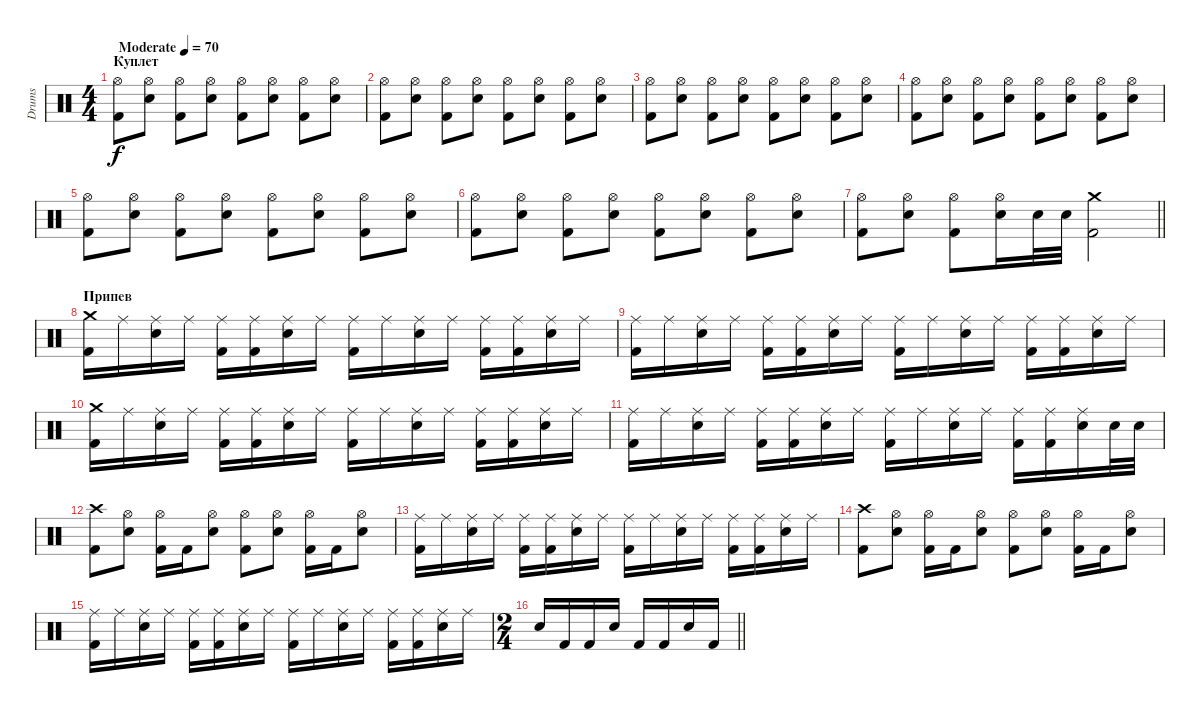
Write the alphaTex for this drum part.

\track ("Drums" "Drums") {instrument percussion}
\staff {score}
\articulation defaults
\ts (4 4)
\section ("" "Куплет")
\tempo (70 "Moderate")
\clef neutral
\ks c
("Hi-Hat (open)" "Kick (hit) 2").8{dy f} ("Hi-Hat (open)" "Snare (hit) 2").8 ("Hi-Hat (open)" "Kick (hit) 2").8 ("Hi-Hat (open)" "Snare (hit) 2").8 ("Hi-Hat (open)" "Kick (hit) 2").8 ("Hi-Hat (open)" "Snare (hit) 2").8 ("Hi-Hat (open)" "Kick (hit) 2").8 ("Hi-Hat (open)" "Snare (hit) 2").8 |
("Hi-Hat (open)" "Kick (hit) 2").8 ("Hi-Hat (open)" "Snare (hit) 2").8 ("Hi-Hat (open)" "Kick (hit) 2").8 ("Hi-Hat (open)" "Snare (hit) 2").8 ("Hi-Hat (open)" "Kick (hit) 2").8 ("Hi-Hat (open)" "Snare (hit) 2").8 ("Hi-Hat (open)" "Kick (hit) 2").8 ("Hi-Hat (open)" "Snare (hit) 2").8 |
("Hi-Hat (open)" "Kick (hit) 2").8 ("Hi-Hat (open)" "Snare (hit) 2").8 ("Hi-Hat (open)" "Kick (hit) 2").8 ("Hi-Hat (open)" "Snare (hit) 2").8 ("Hi-Hat (open)" "Kick (hit) 2").8 ("Hi-Hat (open)" "Snare (hit) 2").8 ("Hi-Hat (open)" "Kick (hit) 2").8 ("Hi-Hat (open)" "Snare (hit) 2").8 |
("Hi-Hat (open)" "Kick (hit) 2").8 ("Hi-Hat (open)" "Snare (hit) 2").8 ("Hi-Hat (open)" "Kick (hit) 2").8 ("Hi-Hat (open)" "Snare (hit) 2").8 ("Hi-Hat (open)" "Kick (hit) 2").8 ("Hi-Hat (open)" "Snare (hit) 2").8 ("Hi-Hat (open)" "Kick (hit) 2").8 ("Hi-Hat (open)" "Snare (hit) 2").8 |
("Hi-Hat (open)" "Kick (hit) 2").8 ("Hi-Hat (open)" "Snare (hit) 2").8 ("Hi-Hat (open)" "Kick (hit) 2").8 ("Hi-Hat (open)" "Snare (hit) 2").8 ("Hi-Hat (open)" "Kick (hit) 2").8 ("Hi-Hat (open)" "Snare (hit) 2").8 ("Hi-Hat (open)" "Kick (hit) 2").8 ("Hi-Hat (open)" "Snare (hit) 2").8 |
("Hi-Hat (open)" "Kick (hit) 2").8 ("Hi-Hat (open)" "Snare (hit) 2").8 ("Hi-Hat (open)" "Kick (hit) 2").8 ("Hi-Hat (open)" "Snare (hit) 2").8 ("Hi-Hat (open)" "Kick (hit) 2").8 ("Hi-Hat (open)" "Snare (hit) 2").8 ("Hi-Hat (open)" "Kick (hit) 2").8 ("Hi-Hat (open)" "Snare (hit) 2").8 |
\barLineRight lightlight
("Hi-Hat (open)" "Kick (hit) 2").8 ("Hi-Hat (open)" "Snare (hit) 2").8 ("Hi-Hat (open)" "Kick (hit) 2").8 ("Hi-Hat (open)" "Snare (hit) 2").16 "Snare (hit) 2".32 "Snare (hit) 2".32 ("Crash medium (hit)" "Kick (hit) 2").2 |
\section ("" "Припев")
("Crash medium (hit)" "Kick (hit) 2").16 "Ride (middle)".16 ("Ride (middle)" "Snare (hit) 2").16 "Ride (middle)".16 ("Ride (middle)" "Kick (hit) 2").16 ("Ride (middle)" "Kick (hit) 2").16 ("Ride (middle)" "Snare (hit) 2").16 "Ride (middle)".16 ("Ride (middle)" "Kick (hit) 2").16 "Ride (middle)".16 ("Ride (middle)" "Snare (hit) 2").16 "Ride (middle)".16 ("Ride (middle)" "Kick (hit) 2").16 ("Ride (middle)" "Kick (hit) 2").16 ("Ride (middle)" "Snare (hit) 2").16 "Ride (middle)".16 |
("Ride (middle)" "Kick (hit) 2").16 "Ride (middle)".16 ("Ride (middle)" "Snare (hit) 2").16 "Ride (middle)".16 ("Ride (middle)" "Kick (hit) 2").16 ("Ride (middle)" "Kick (hit) 2").16 ("Ride (middle)" "Snare (hit) 2").16 "Ride (middle)".16 ("Ride (middle)" "Kick (hit) 2").16 "Ride (middle)".16 ("Ride (middle)" "Snare (hit) 2").16 "Ride (middle)".16 ("Ride (middle)" "Kick (hit) 2").16 ("Ride (middle)" "Kick (hit) 2").16 ("Ride (middle)" "Snare (hit) 2").16 "Ride (middle)".16 |
("Crash medium (hit)" "Kick (hit) 2").16 "Ride (middle)".16 ("Ride (middle)" "Snare (hit) 2").16 "Ride (middle)".16 ("Ride (middle)" "Kick (hit) 2").16 ("Ride (middle)" "Kick (hit) 2").16 ("Ride (middle)" "Snare (hit) 2").16 "Ride (middle)".16 ("Ride (middle)" "Kick (hit) 2").16 "Ride (middle)".16 ("Ride (middle)" "Snare (hit) 2").16 "Ride (middle)".16 ("Ride (middle)" "Kick (hit) 2").16 ("Ride (middle)" "Kick (hit) 2").16 ("Ride (middle)" "Snare (hit) 2").16 "Ride (middle)".16 |
("Ride (middle)" "Kick (hit) 2").16 "Ride (middle)".16 ("Ride (middle)" "Snare (hit) 2").16 "Ride (middle)".16 ("Ride (middle)" "Kick (hit) 2").16 ("Ride (middle)" "Kick (hit) 2").16 ("Ride (middle)" "Snare (hit) 2").16 "Ride (middle)".16 ("Ride (middle)" "Kick (hit) 2").16 "Ride (middle)".16 ("Ride (middle)" "Snare (hit) 2").16 "Ride (middle)".16 ("Ride (middle)" "Kick (hit) 2").16 ("Ride (middle)" "Kick (hit) 2").16 ("Ride (middle)" "Snare (hit) 2").16 "Snare (hit) 2".32 "Snare (hit) 2".32 |
("Crash high (hit)" "Kick (hit) 2").8 ("Hi-Hat (open)" "Snare (hit) 2").8 ("Hi-Hat (open)" "Kick (hit) 2").16 "Kick (hit) 2".16 ("Hi-Hat (open)" "Snare (hit) 2").8 ("Hi-Hat (open)" "Kick (hit) 2").8 ("Hi-Hat (open)" "Snare (hit) 2").8 ("Hi-Hat (open)" "Kick (hit) 2").16 "Kick (hit) 2".16 ("Hi-Hat (open)" "Snare (hit) 2").8 |
("Ride (middle)" "Kick (hit) 2").16 "Ride (middle)".16 ("Ride (middle)" "Snare (hit) 2").16 "Ride (middle)".16 ("Ride (middle)" "Kick (hit) 2").16 ("Ride (middle)" "Kick (hit) 2").16 ("Ride (middle)" "Snare (hit) 2").16 "Ride (middle)".16 ("Ride (middle)" "Kick (hit) 2").16 "Ride (middle)".16 ("Ride (middle)" "Snare (hit) 2").16 "Ride (middle)".16 ("Ride (middle)" "Kick (hit) 2").16 ("Ride (middle)" "Kick (hit) 2").16 ("Ride (middle)" "Snare (hit) 2").16 "Ride (middle)".16 |
("Crash high (hit)" "Kick (hit) 2").8 ("Hi-Hat (open)" "Snare (hit) 2").8 ("Hi-Hat (open)" "Kick (hit) 2").16 "Kick (hit) 2".16 ("Hi-Hat (open)" "Snare (hit) 2").8 ("Hi-Hat (open)" "Kick (hit) 2").8 ("Hi-Hat (open)" "Snare (hit) 2").8 ("Hi-Hat (open)" "Kick (hit) 2").16 "Kick (hit) 2".16 ("Hi-Hat (open)" "Snare (hit) 2").8 |
("Ride (middle)" "Kick (hit) 2").16 "Ride (middle)".16 ("Ride (middle)" "Snare (hit) 2").16 "Ride (middle)".16 ("Ride (middle)" "Kick (hit) 2").16 ("Ride (middle)" "Kick (hit) 2").16 ("Ride (middle)" "Snare (hit) 2").16 "Ride (middle)".16 ("Ride (middle)" "Kick (hit) 2").16 "Ride (middle)".16 ("Ride (middle)" "Snare (hit) 2").16 "Ride (middle)".16 ("Ride (middle)" "Kick (hit) 2").16 ("Ride (middle)" "Kick (hit) 2").16 ("Ride (middle)" "Snare (hit) 2").16 "Ride (middle)".16 |
\ts (2 4)
\barLineRight lightlight "Snare (hit) 2".16 "Kick (hit) 2".16 "Kick (hit) 2".16 "Snare (hit) 2".16 "Kick (hit) 2".16 "Kick (hit) 2".16 "Snare (hit) 2".16 "Kick (hit) 2".16
